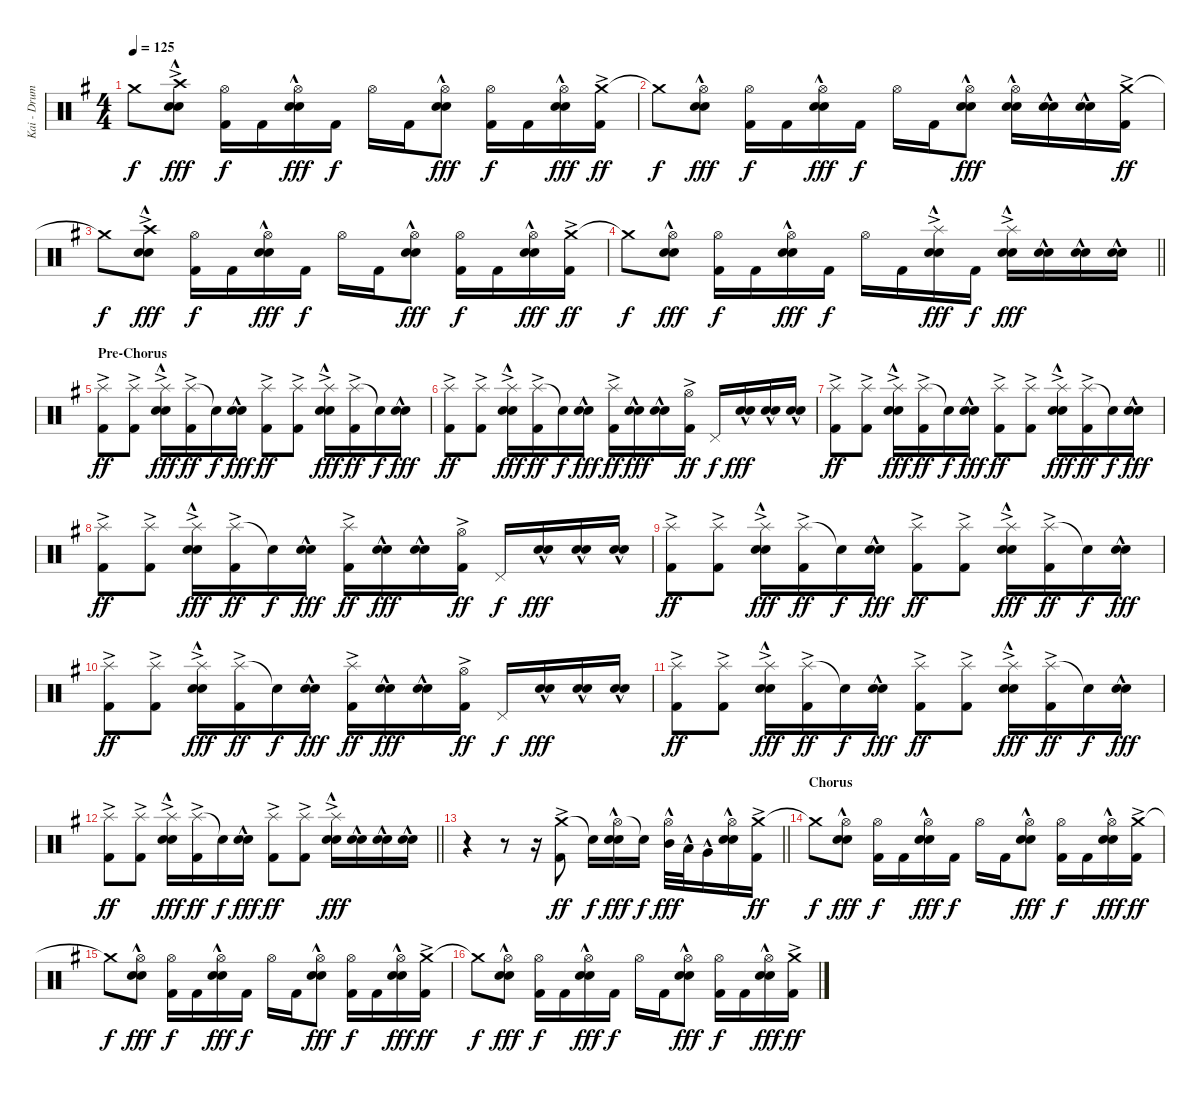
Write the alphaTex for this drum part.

\track ("Kai - Drums" "Kai - Drum") {instrument percussion}
\staff {score}
\articulation defaults
\ts (4 4)
\tempo 125
\clef neutral
\ks eminor "Crash medium (hit)"{t}.8{dy f}
("Crash high (hit)"{ac} "Electric Snare (hit)"{hac} "Snare (hit) 2"{hac}).8{dy fff} ("Hi-Hat (open)" "Kick (hit) 2").16{dy f} "Kick (hit) 2".16 ("Hi-Hat (open)" "Electric Snare (hit)"{hac} "Snare (hit) 2"{hac}).16{dy fff} "Kick (hit) 2".16{dy f} "Hi-Hat (open)".16 "Kick (hit) 2".16 ("Hi-Hat (open)" "Electric Snare (hit)"{hac} "Snare (hit) 2"{hac}).8{dy fff} ("Hi-Hat (open)" "Kick (hit) 2").16{dy f} "Kick (hit) 2".16 ("Hi-Hat (open)" "Electric Snare (hit)"{hac} "Snare (hit) 2"{hac}).16{dy fff} ("Crash medium (hit)"{ac} "Kick (hit) 2").16{dy ff} |
"Crash medium (hit)"{t}.8{dy f} ("Hi-Hat (open)" "Electric Snare (hit)"{hac} "Snare (hit) 2"{hac}).8{dy fff} ("Hi-Hat (open)" "Kick (hit) 2").16{dy f} "Kick (hit) 2".16 ("Hi-Hat (open)" "Electric Snare (hit)"{hac} "Snare (hit) 2"{hac}).16{dy fff} "Kick (hit) 2".16{dy f} "Hi-Hat (open)".16 "Kick (hit) 2".16 ("Hi-Hat (open)" "Electric Snare (hit)"{hac} "Snare (hit) 2"{hac}).8{dy fff} ("Hi-Hat (open)" "Electric Snare (hit)"{hac} "Snare (hit) 2"{hac}).16 ("Electric Snare (hit)"{hac} "Snare (hit) 2"{hac}).16 ("Electric Snare (hit)"{hac} "Snare (hit) 2"{hac}).16 ("Crash medium (hit)"{ac} "Kick (hit) 2").16{dy ff} |
"Crash medium (hit)"{t}.8{dy f} ("Crash high (hit)"{ac} "Electric Snare (hit)"{hac} "Snare (hit) 2"{hac}).8{dy fff} ("Hi-Hat (open)" "Kick (hit) 2").16{dy f} "Kick (hit) 2".16 ("Hi-Hat (open)" "Electric Snare (hit)"{hac} "Snare (hit) 2"{hac}).16{dy fff} "Kick (hit) 2".16{dy f} "Hi-Hat (open)".16 "Kick (hit) 2".16 ("Hi-Hat (open)" "Electric Snare (hit)"{hac} "Snare (hit) 2"{hac}).8{dy fff} ("Hi-Hat (open)" "Kick (hit) 2").16{dy f} "Kick (hit) 2".16 ("Hi-Hat (open)" "Electric Snare (hit)"{hac} "Snare (hit) 2"{hac}).16{dy fff} ("Crash medium (hit)"{ac} "Kick (hit) 2").16{dy ff} |
\barLineRight lightlight "Crash medium (hit)"{t}.8{dy f}
("Hi-Hat (open)" "Electric Snare (hit)"{hac} "Snare (hit) 2"{hac}).8{dy fff} ("Hi-Hat (open)" "Kick (hit) 2").16{dy f} "Kick (hit) 2".16 ("Hi-Hat (open)" "Electric Snare (hit)"{hac} "Snare (hit) 2"{hac}).16{dy fff} "Kick (hit) 2".16{dy f} "Hi-Hat (open)".16 "Kick (hit) 2".16 ("Splash (hit)"{ac} "Electric Snare (hit)"{hac} "Snare (hit) 2"{hac}).16{dy fff} "Kick (hit) 2".16{dy f} ("Splash (hit)"{ac} "Electric Snare (hit)"{hac} "Snare (hit) 2"{hac}).16{dy fff} ("Electric Snare (hit)"{hac} "Snare (hit) 2"{hac}).16 ("Electric Snare (hit)"{hac} "Snare (hit) 2"{hac}).16 ("Electric Snare (hit)"{hac} "Snare (hit) 2"{hac}).16 |
\section ("" "Pre-Chorus")
("Splash (hit)"{ac} "Kick (hit) 2").8{dy ff} ("Splash (hit)"{ac} "Kick (hit) 2").8 ("Splash (hit)"{ac} "Electric Snare (hit)"{hac} "Snare (hit) 2"{hac}).16{dy fff} ("Splash (hit)"{ac} "Kick (hit) 2").16{dy ff} "Snare (hit)"{t}.16{dy f} ("Electric Snare (hit)"{hac} "Snare (hit) 2"{hac}).16{dy fff} ("Splash (hit)"{ac} "Kick (hit) 2").8{dy ff} ("Splash (hit)"{ac} "Kick (hit) 2").8 ("Splash (hit)"{ac} "Electric Snare (hit)"{hac} "Snare (hit) 2"{hac}).16{dy fff} ("Splash (hit)"{ac} "Kick (hit) 2").16{dy ff} "Snare (hit)"{t}.16{dy f} ("Electric Snare (hit)"{hac} "Snare (hit) 2"{hac}).16{dy fff} |
("Splash (hit)"{ac} "Kick (hit) 2").8{dy ff} ("Splash (hit)"{ac} "Kick (hit) 2").8 ("Splash (hit)"{ac} "Electric Snare (hit)"{hac} "Snare (hit) 2"{hac}).16{dy fff} ("Splash (hit)"{ac} "Kick (hit) 2").16{dy ff} "Snare (hit)"{t}.16{dy f} ("Electric Snare (hit)"{hac} "Snare (hit) 2"{hac}).16{dy fff} ("Splash (hit)"{ac} "Kick (hit) 2").16{dy ff} ("Electric Snare (hit)"{hac} "Snare (hit) 2"{hac}).16{dy fff} ("Electric Snare (hit)"{hac} "Snare (hit) 2"{hac}).16 ("Hi-Hat (open)"{ac} "Kick (hit) 2").16{dy ff} "Pedal Hi-Hat (hit)".16{dy f} ("Electric Snare (hit)"{hac} "Snare (hit) 2"{hac}).16{dy fff} ("Electric Snare (hit)"{hac} "Snare (hit) 2"{hac}).16 ("Electric Snare (hit)"{hac} "Snare (hit) 2"{hac}).16 |
("Splash (hit)"{ac} "Kick (hit) 2").8{dy ff} ("Splash (hit)"{ac} "Kick (hit) 2").8 ("Splash (hit)"{ac} "Electric Snare (hit)"{hac} "Snare (hit) 2"{hac}).16{dy fff} ("Splash (hit)"{ac} "Kick (hit) 2").16{dy ff} "Snare (hit)"{t}.16{dy f} ("Electric Snare (hit)"{hac} "Snare (hit) 2"{hac}).16{dy fff} ("Splash (hit)"{ac} "Kick (hit) 2").8{dy ff} ("Splash (hit)"{ac} "Kick (hit) 2").8 ("Splash (hit)"{ac} "Electric Snare (hit)"{hac} "Snare (hit) 2"{hac}).16{dy fff} ("Splash (hit)"{ac} "Kick (hit) 2").16{dy ff} "Snare (hit)"{t}.16{dy f} ("Electric Snare (hit)"{hac} "Snare (hit) 2"{hac}).16{dy fff} |
("Splash (hit)"{ac} "Kick (hit) 2").8{dy ff} ("Splash (hit)"{ac} "Kick (hit) 2").8 ("Splash (hit)"{ac} "Electric Snare (hit)"{hac} "Snare (hit) 2"{hac}).16{dy fff} ("Splash (hit)"{ac} "Kick (hit) 2").16{dy ff} "Snare (hit)"{t}.16{dy f} ("Electric Snare (hit)"{hac} "Snare (hit) 2"{hac}).16{dy fff} ("Splash (hit)"{ac} "Kick (hit) 2").16{dy ff} ("Electric Snare (hit)"{hac} "Snare (hit) 2"{hac}).16{dy fff} ("Electric Snare (hit)"{hac} "Snare (hit) 2"{hac}).16 ("Hi-Hat (open)"{ac} "Kick (hit) 2").16{dy ff} "Pedal Hi-Hat (hit)".16{dy f} ("Electric Snare (hit)"{hac} "Snare (hit) 2"{hac}).16{dy fff} ("Electric Snare (hit)"{hac} "Snare (hit) 2"{hac}).16 ("Electric Snare (hit)"{hac} "Snare (hit) 2"{hac}).16 |
("Splash (hit)"{ac} "Kick (hit) 2").8{dy ff} ("Splash (hit)"{ac} "Kick (hit) 2").8 ("Splash (hit)"{ac} "Electric Snare (hit)"{hac} "Snare (hit) 2"{hac}).16{dy fff} ("Splash (hit)"{ac} "Kick (hit) 2").16{dy ff} "Snare (hit)"{t}.16{dy f} ("Electric Snare (hit)"{hac} "Snare (hit) 2"{hac}).16{dy fff} ("Splash (hit)"{ac} "Kick (hit) 2").8{dy ff} ("Splash (hit)"{ac} "Kick (hit) 2").8 ("Splash (hit)"{ac} "Electric Snare (hit)"{hac} "Snare (hit) 2"{hac}).16{dy fff} ("Splash (hit)"{ac} "Kick (hit) 2").16{dy ff} "Snare (hit)"{t}.16{dy f} ("Electric Snare (hit)"{hac} "Snare (hit) 2"{hac}).16{dy fff} |
("Splash (hit)"{ac} "Kick (hit) 2").8{dy ff} ("Splash (hit)"{ac} "Kick (hit) 2").8 ("Splash (hit)"{ac} "Electric Snare (hit)"{hac} "Snare (hit) 2"{hac}).16{dy fff} ("Splash (hit)"{ac} "Kick (hit) 2").16{dy ff} "Snare (hit)"{t}.16{dy f} ("Electric Snare (hit)"{hac} "Snare (hit) 2"{hac}).16{dy fff} ("Splash (hit)"{ac} "Kick (hit) 2").16{dy ff} ("Electric Snare (hit)"{hac} "Snare (hit) 2"{hac}).16{dy fff} ("Electric Snare (hit)"{hac} "Snare (hit) 2"{hac}).16 ("Hi-Hat (open)"{ac} "Kick (hit) 2").16{dy ff} "Pedal Hi-Hat (hit)".16{dy f} ("Electric Snare (hit)"{hac} "Snare (hit) 2"{hac}).16{dy fff} ("Electric Snare (hit)"{hac} "Snare (hit) 2"{hac}).16 ("Electric Snare (hit)"{hac} "Snare (hit) 2"{hac}).16 |
("Splash (hit)"{ac} "Kick (hit) 2").8{dy ff} ("Splash (hit)"{ac} "Kick (hit) 2").8 ("Splash (hit)"{ac} "Electric Snare (hit)"{hac} "Snare (hit) 2"{hac}).16{dy fff} ("Splash (hit)"{ac} "Kick (hit) 2").16{dy ff} "Snare (hit)"{t}.16{dy f} ("Electric Snare (hit)"{hac} "Snare (hit) 2"{hac}).16{dy fff} ("Splash (hit)"{ac} "Kick (hit) 2").8{dy ff} ("Splash (hit)"{ac} "Kick (hit) 2").8 ("Splash (hit)"{ac} "Electric Snare (hit)"{hac} "Snare (hit) 2"{hac}).16{dy fff} ("Splash (hit)"{ac} "Kick (hit) 2").16{dy ff} "Snare (hit)"{t}.16{dy f} ("Electric Snare (hit)"{hac} "Snare (hit) 2"{hac}).16{dy fff} |
\barLineRight lightlight
("Splash (hit)"{ac} "Kick (hit) 2").8{dy ff} ("Splash (hit)"{ac} "Kick (hit) 2").8 ("Splash (hit)"{ac} "Electric Snare (hit)"{hac} "Snare (hit) 2"{hac}).16{dy fff} ("Splash (hit)"{ac} "Kick (hit) 2").16{dy ff} "Snare (hit)"{t}.16{dy f} ("Electric Snare (hit)"{hac} "Snare (hit) 2"{hac}).16{dy fff} ("Splash (hit)"{ac} "Kick (hit) 2").8{dy ff} ("Splash (hit)"{ac} "Kick (hit) 2").8 ("Splash (hit)"{ac} "Electric Snare (hit)"{hac} "Snare (hit) 2"{hac}).16{dy fff} ("Electric Snare (hit)"{hac} "Snare (hit) 2"{hac}).16 ("Electric Snare (hit)"{hac} "Snare (hit) 2"{hac}).16 ("Electric Snare (hit)"{hac} "Snare (hit) 2"{hac}).16 |
\barLineRight lightlight
r.4 r.8 r.16 ("Crash medium (hit)"{ac} "Kick (hit) 2").8{dy ff} "Snare (hit)"{t}.16{dy f} ("Hi-Hat (open)" "Electric Snare (hit)"{hac} "Snare (hit) 2"{hac}).16{dy fff} "Snare (hit)"{t}.16{dy f} ("Hi-Hat (open)" "Mid Tom (hit)"{hac}).32{dy fff} "Low Tom (hit)"{hac}.32 "Very Low Tom (hit)"{hac}.16 ("Hi-Hat (open)" "Electric Snare (hit)"{hac} "Snare (hit) 2"{hac}).16 ("Crash medium (hit)"{ac} "Kick (hit) 2").16{dy ff} |
\section ("" "Chorus")
"Crash medium (hit)"{t}.8{dy f} ("Hi-Hat (open)" "Electric Snare (hit)"{hac} "Snare (hit) 2"{hac}).8{dy fff} ("Hi-Hat (open)" "Kick (hit) 2").16{dy f} "Kick (hit) 2".16 ("Hi-Hat (open)" "Electric Snare (hit)"{hac} "Snare (hit) 2"{hac}).16{dy fff} "Kick (hit) 2".16{dy f} "Hi-Hat (open)".16 "Kick (hit) 2".16 ("Hi-Hat (open)" "Electric Snare (hit)"{hac} "Snare (hit) 2"{hac}).8{dy fff} ("Hi-Hat (open)" "Kick (hit) 2").16{dy f} "Kick (hit) 2".16 ("Hi-Hat (open)" "Electric Snare (hit)"{hac} "Snare (hit) 2"{hac}).16{dy fff} ("Crash medium (hit)"{ac} "Kick (hit) 2").16{dy ff} |
"Crash medium (hit)"{t}.8{dy f} ("Hi-Hat (open)" "Electric Snare (hit)"{hac} "Snare (hit) 2"{hac}).8{dy fff} ("Hi-Hat (open)" "Kick (hit) 2").16{dy f} "Kick (hit) 2".16 ("Hi-Hat (open)" "Electric Snare (hit)"{hac} "Snare (hit) 2"{hac}).16{dy fff} "Kick (hit) 2".16{dy f} "Hi-Hat (open)".16 "Kick (hit) 2".16 ("Hi-Hat (open)" "Electric Snare (hit)"{hac} "Snare (hit) 2"{hac}).8{dy fff} ("Hi-Hat (open)" "Kick (hit) 2").16{dy f} "Kick (hit) 2".16 ("Hi-Hat (open)" "Electric Snare (hit)"{hac} "Snare (hit) 2"{hac}).16{dy fff} ("Crash medium (hit)"{ac} "Kick (hit) 2").16{dy ff} |
"Crash medium (hit)"{t}.8{dy f} ("Hi-Hat (open)" "Electric Snare (hit)"{hac} "Snare (hit) 2"{hac}).8{dy fff} ("Hi-Hat (open)" "Kick (hit) 2").16{dy f} "Kick (hit) 2".16 ("Hi-Hat (open)" "Electric Snare (hit)"{hac} "Snare (hit) 2"{hac}).16{dy fff} "Kick (hit) 2".16{dy f} "Hi-Hat (open)".16 "Kick (hit) 2".16 ("Hi-Hat (open)" "Electric Snare (hit)"{hac} "Snare (hit) 2"{hac}).8{dy fff} ("Hi-Hat (open)" "Kick (hit) 2").16{dy f} "Kick (hit) 2".16 ("Hi-Hat (open)" "Electric Snare (hit)"{hac} "Snare (hit) 2"{hac}).16{dy fff} ("Crash medium (hit)"{ac} "Kick (hit) 2").16{dy ff}
